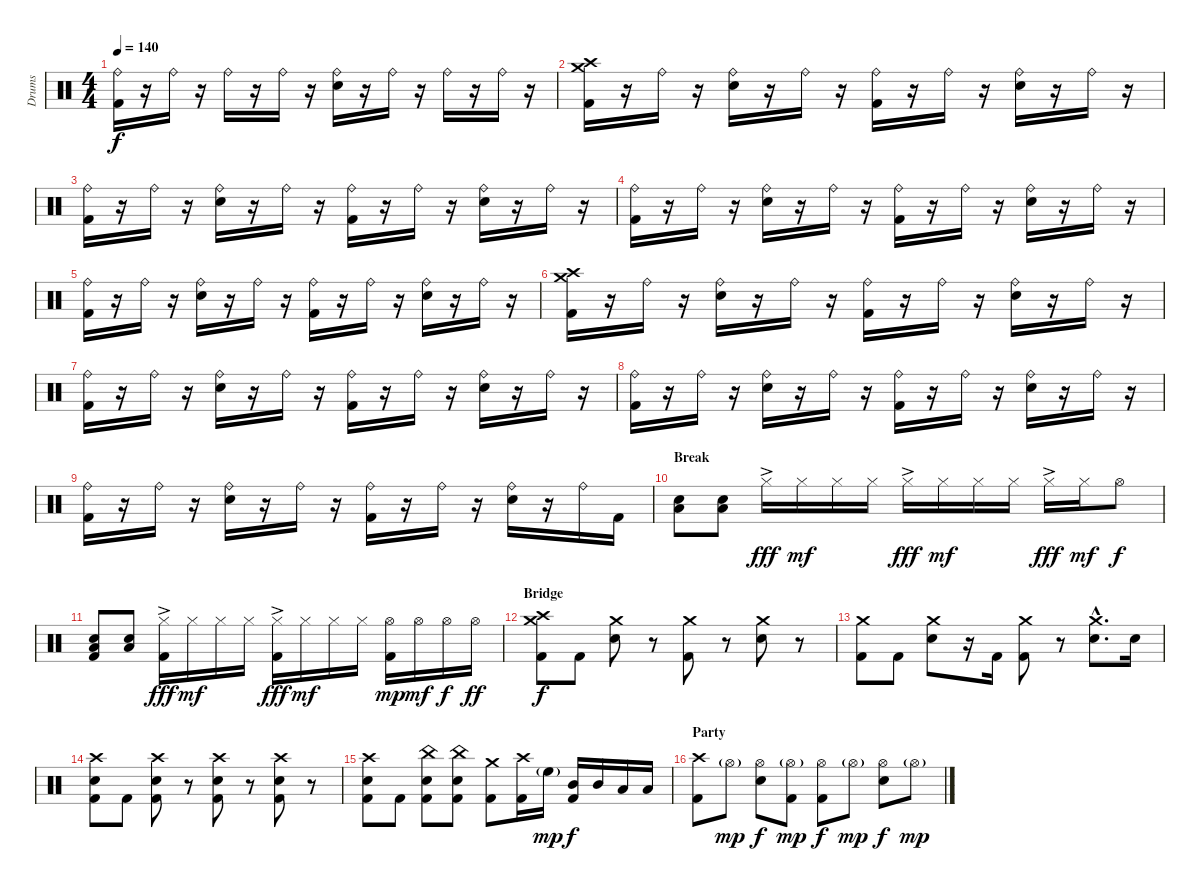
\track ("Drums" "Drums") {instrument percussion}
\staff {score}
\articulation defaults
\ts (4 4)
\tempo 140
\clef neutral
\ks c
("Ride (bell)" "Kick (hit) 2").16{dy f} r.16 "Ride (bell)".16 r.16 "Ride (bell)".16 r.16 "Ride (bell)".16 r.16 ("Ride (bell)" "Electric Snare (hit)").16 r.16 "Ride (bell)".16 r.16 "Ride (bell)".16 r.16 "Ride (bell)".16 r.16 |
("Crash high (hit)" "Crash medium (hit)" "Kick (hit) 2").16 r.16 "Ride (bell)".16 r.16 ("Ride (bell)" "Electric Snare (hit)").16 r.16 "Ride (bell)".16 r.16 ("Ride (bell)" "Kick (hit) 2").16 r.16 "Ride (bell)".16 r.16 ("Ride (bell)" "Electric Snare (hit)").16 r.16 "Ride (bell)".16 r.16 |
("Ride (bell)" "Kick (hit) 2").16 r.16 "Ride (bell)".16 r.16 ("Ride (bell)" "Electric Snare (hit)").16 r.16 "Ride (bell)".16 r.16 ("Ride (bell)" "Kick (hit) 2").16 r.16 "Ride (bell)".16 r.16 ("Ride (bell)" "Electric Snare (hit)").16 r.16 "Ride (bell)".16 r.16 |
("Ride (bell)" "Kick (hit) 2").16 r.16 "Ride (bell)".16 r.16 ("Ride (bell)" "Electric Snare (hit)").16 r.16 "Ride (bell)".16 r.16 ("Ride (bell)" "Kick (hit) 2").16 r.16 "Ride (bell)".16 r.16 ("Ride (bell)" "Electric Snare (hit)").16 r.16 "Ride (bell)".16 r.16 |
("Ride (bell)" "Kick (hit) 2").16 r.16 "Ride (bell)".16 r.16 ("Ride (bell)" "Electric Snare (hit)").16 r.16 "Ride (bell)".16 r.16 ("Ride (bell)" "Kick (hit) 2").16 r.16 "Ride (bell)".16 r.16 ("Ride (bell)" "Electric Snare (hit)").16 r.16 "Ride (bell)".16 r.16 |
("Crash high (hit)" "Crash medium (hit)" "Kick (hit) 2").16 r.16 "Ride (bell)".16 r.16 ("Ride (bell)" "Electric Snare (hit)").16 r.16 "Ride (bell)".16 r.16 ("Ride (bell)" "Kick (hit) 2").16 r.16 "Ride (bell)".16 r.16 ("Ride (bell)" "Electric Snare (hit)").16 r.16 "Ride (bell)".16 r.16 |
("Ride (bell)" "Kick (hit) 2").16 r.16 "Ride (bell)".16 r.16 ("Ride (bell)" "Electric Snare (hit)").16 r.16 "Ride (bell)".16 r.16 ("Ride (bell)" "Kick (hit) 2").16 r.16 "Ride (bell)".16 r.16 ("Ride (bell)" "Electric Snare (hit)").16 r.16 "Ride (bell)".16 r.16 |
("Ride (bell)" "Kick (hit) 2").16 r.16 "Ride (bell)".16 r.16 ("Ride (bell)" "Electric Snare (hit)").16 r.16 "Ride (bell)".16 r.16 ("Ride (bell)" "Kick (hit) 2").16 r.16 "Ride (bell)".16 r.16 ("Ride (bell)" "Electric Snare (hit)").16 r.16 "Ride (bell)".16 r.16 |
("Ride (bell)" "Kick (hit) 2").16 r.16 "Ride (bell)".16 r.16 ("Ride (bell)" "Electric Snare (hit)").16 r.16 "Ride (bell)".16 r.16 ("Ride (bell)" "Kick (hit) 2").16 r.16 "Ride (bell)".16 r.16 ("Ride (bell)" "Electric Snare (hit)").16 r.16 "Ride (bell)".16 "Kick (hit) 2".16 |
\section ("" "Break")
("Electric Snare (hit)" "Low Floor Tom (hit)").8 ("Electric Snare (hit)" "Low Floor Tom (hit)").8 "Hi-Hat (closed)"{ac}.16{dy fff} "Hi-Hat (closed)".16{dy mf} "Hi-Hat (closed)".16 "Hi-Hat (closed)".16 "Hi-Hat (closed)"{ac}.16{dy fff} "Hi-Hat (closed)".16{dy mf} "Hi-Hat (closed)".16 "Hi-Hat (closed)".16 "Hi-Hat (closed)"{ac}.16{dy fff} "Hi-Hat (closed)".16{dy mf} "Hi-Hat (open)".8{dy f} |
("Electric Snare (hit)" "Low Floor Tom (hit)" "Kick (hit) 2").8 ("Electric Snare (hit)" "Low Floor Tom (hit)").8 ("Hi-Hat (closed)"{ac} "Kick (hit) 2").16{dy fff} "Hi-Hat (closed)".16{dy mf} "Hi-Hat (closed)".16 "Hi-Hat (closed)".16 ("Hi-Hat (closed)"{ac} "Kick (hit) 2").16{dy fff} "Hi-Hat (closed)".16{dy mf} "Hi-Hat (closed)".16 "Hi-Hat (closed)".16 ("Hi-Hat (open)" "Kick (hit) 2").16{dy mp} "Hi-Hat (open)".16{dy mf} "Hi-Hat (open)".16{dy f} "Hi-Hat (open)".16{dy ff} |
\section ("" "Bridge")
("Crash medium (hit)" "Crash high (hit)" "Kick (hit) 2").8{dy f} "Kick (hit) 2".8 ("Crash medium (hit)" "Electric Snare (hit)").8 r.8 ("Crash medium (hit)" "Kick (hit) 2").8 r.8 ("Crash medium (hit)" "Electric Snare (hit)").8 r.8 |
("Crash medium (hit)" "Kick (hit) 2").8 "Kick (hit) 2".8 ("Crash medium (hit)" "Electric Snare (hit)").8 r.16 "Kick (hit) 2".16 ("Crash medium (hit)" "Kick (hit) 2").8 r.8 ("Crash medium (hit)"{hac} "Electric Snare (hit)"{hac}).8{d} "Electric Snare (hit)".16 |
("Crash high (hit)" "Electric Snare (hit)" "Kick (hit) 2").8 "Kick (hit) 2".8 ("Crash high (hit)" "Electric Snare (hit)" "Kick (hit) 2").8 r.8 ("Crash high (hit)" "Electric Snare (hit)" "Kick (hit) 2").8 r.8 ("Crash high (hit)" "Electric Snare (hit)" "Kick (hit) 2").8 r.8 |
("Crash high (hit)" "Electric Snare (hit)" "Kick (hit) 2").8 "Kick (hit) 2".8 ("China (hit)" "Electric Snare (hit)" "Kick (hit) 2").8 ("China (hit)" "Electric Snare (hit)" "Kick (hit) 2").8 ("Crash medium (hit)" "Kick (hit) 2").8 ("Crash high (hit)" "Kick (hit) 2").16 "High Floor Tom (hit)"{g}.16{dy mp} ("Mid Tom (hit)" "Kick (hit) 2").16{dy f} "Mid Tom (hit)".16 "Low Tom (hit)".16 "Low Tom (hit)".16 |
\section ("" "Party")
("Crash high (hit)" "Kick (hit) 2").8 "Hi-Hat (open)"{g}.8{dy mp} ("Hi-Hat (open)" "Electric Snare (hit)").8{dy f} ("Hi-Hat (open)"{g} "Kick (hit) 2").8{dy mp} ("Hi-Hat (open)" "Kick (hit) 2").8{dy f} "Hi-Hat (open)"{g}.8{dy mp} ("Hi-Hat (open)" "Electric Snare (hit)").8{dy f} "Hi-Hat (open)"{g}.8{dy mp}
